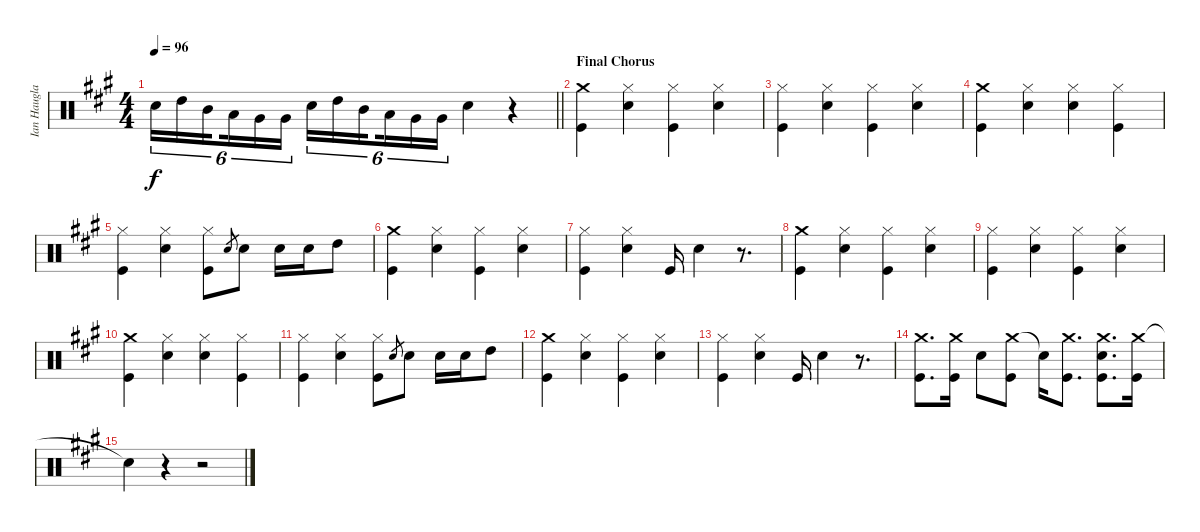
\track ("Ian Haugland" "Ian Haugla") {instrument percussion}
\staff {score}
\articulation defaults
\ts (4 4)
\tempo 96
\clef neutral
\barLineRight lightlight
\ks a "Snare (hit) 2".16{tu (6 4) dy f} "High Tom (hit)".16{tu (6 4)} "Mid Tom (hit)".16{tu (6 4) beam splitsecondary} "Low Tom (hit)".16{tu (6 4)} "Very Low Tom (hit)".16{tu (6 4)} "Very Low Tom (hit)".16{tu (6 4)} "Snare (hit) 2".16{tu (6 4)} "High Tom (hit)".16{tu (6 4)} "Mid Tom (hit)".16{tu (6 4) beam splitsecondary} "Low Tom (hit)".16{tu (6 4)} "Very Low Tom (hit)".16{tu (6 4)} "Very Low Tom (hit)".16{tu (6 4)} "Snare (hit) 2".4
r.4 |
\section ("" "Final Chorus")
("Crash medium (hit)" "Kick (hit)").4 ("Hi-Hat (closed)" "Snare (hit) 2").4 ("Hi-Hat (closed)" "Kick (hit)").4 ("Hi-Hat (closed)" "Snare (hit) 2").4 |
("Hi-Hat (closed)" "Kick (hit)").4 ("Hi-Hat (closed)" "Snare (hit) 2").4 ("Hi-Hat (closed)" "Kick (hit)").4 ("Hi-Hat (closed)" "Snare (hit) 2").4 |
("Crash medium (hit)" "Kick (hit)").4 ("Hi-Hat (closed)" "Snare (hit) 2").4 ("Hi-Hat (closed)" "Snare (hit) 2").4 ("Hi-Hat (closed)" "Kick (hit)").4 |
("Hi-Hat (closed)" "Kick (hit)").4 ("Hi-Hat (closed)" "Snare (hit) 2").4 ("Hi-Hat (closed)" "Kick (hit)").8 "Snare (hit) 2".8{gr} "Snare (hit) 2".8 "Snare (hit) 2".16 "Snare (hit) 2".16 "High Tom (hit)".8 |
("Crash medium (hit)" "Kick (hit)").4 ("Hi-Hat (closed)" "Snare (hit) 2").4 ("Hi-Hat (closed)" "Kick (hit)").4 ("Hi-Hat (closed)" "Snare (hit) 2").4 |
("Hi-Hat (closed)" "Kick (hit)").4 ("Hi-Hat (closed)" "Snare (hit) 2").4 "Kick (hit)".16 "Snare (hit) 2".4 r.8{d} |
("Crash medium (hit)" "Kick (hit)").4 ("Hi-Hat (closed)" "Snare (hit) 2").4 ("Hi-Hat (closed)" "Kick (hit)").4 ("Hi-Hat (closed)" "Snare (hit) 2").4 |
("Hi-Hat (closed)" "Kick (hit)").4 ("Hi-Hat (closed)" "Snare (hit) 2").4 ("Hi-Hat (closed)" "Kick (hit)").4 ("Hi-Hat (closed)" "Snare (hit) 2").4 |
("Crash medium (hit)" "Kick (hit)").4 ("Hi-Hat (closed)" "Snare (hit) 2").4 ("Hi-Hat (closed)" "Snare (hit) 2").4 ("Hi-Hat (closed)" "Kick (hit)").4 |
("Hi-Hat (closed)" "Kick (hit)").4 ("Hi-Hat (closed)" "Snare (hit) 2").4 ("Hi-Hat (closed)" "Kick (hit)").8 "Snare (hit) 2".8{gr} "Snare (hit) 2".8 "Snare (hit) 2".16 "Snare (hit) 2".16 "High Tom (hit)".8 |
("Crash medium (hit)" "Kick (hit)").4 ("Hi-Hat (closed)" "Snare (hit) 2").4 ("Hi-Hat (closed)" "Kick (hit)").4 ("Hi-Hat (closed)" "Snare (hit) 2").4 |
("Hi-Hat (closed)" "Kick (hit)").4 ("Hi-Hat (closed)" "Snare (hit) 2").4 "Kick (hit)".16 "Snare (hit) 2".4 r.8{d} |
("Crash medium (hit)" "Kick (hit)").8{d} ("Crash medium (hit)" "Kick (hit)").16 "Snare (hit) 2".8 ("Crash medium (hit)" "Kick (hit)").8 "Snare (hit)"{t}.16 ("Crash medium (hit)" "Kick (hit)").8{d} ("Crash medium (hit)" "Snare (hit) 2" "Kick (hit)").8{d} ("Crash medium (hit)" "Kick (hit)").16 |
"Snare (hit)"{t}.4 r.4 r.2
